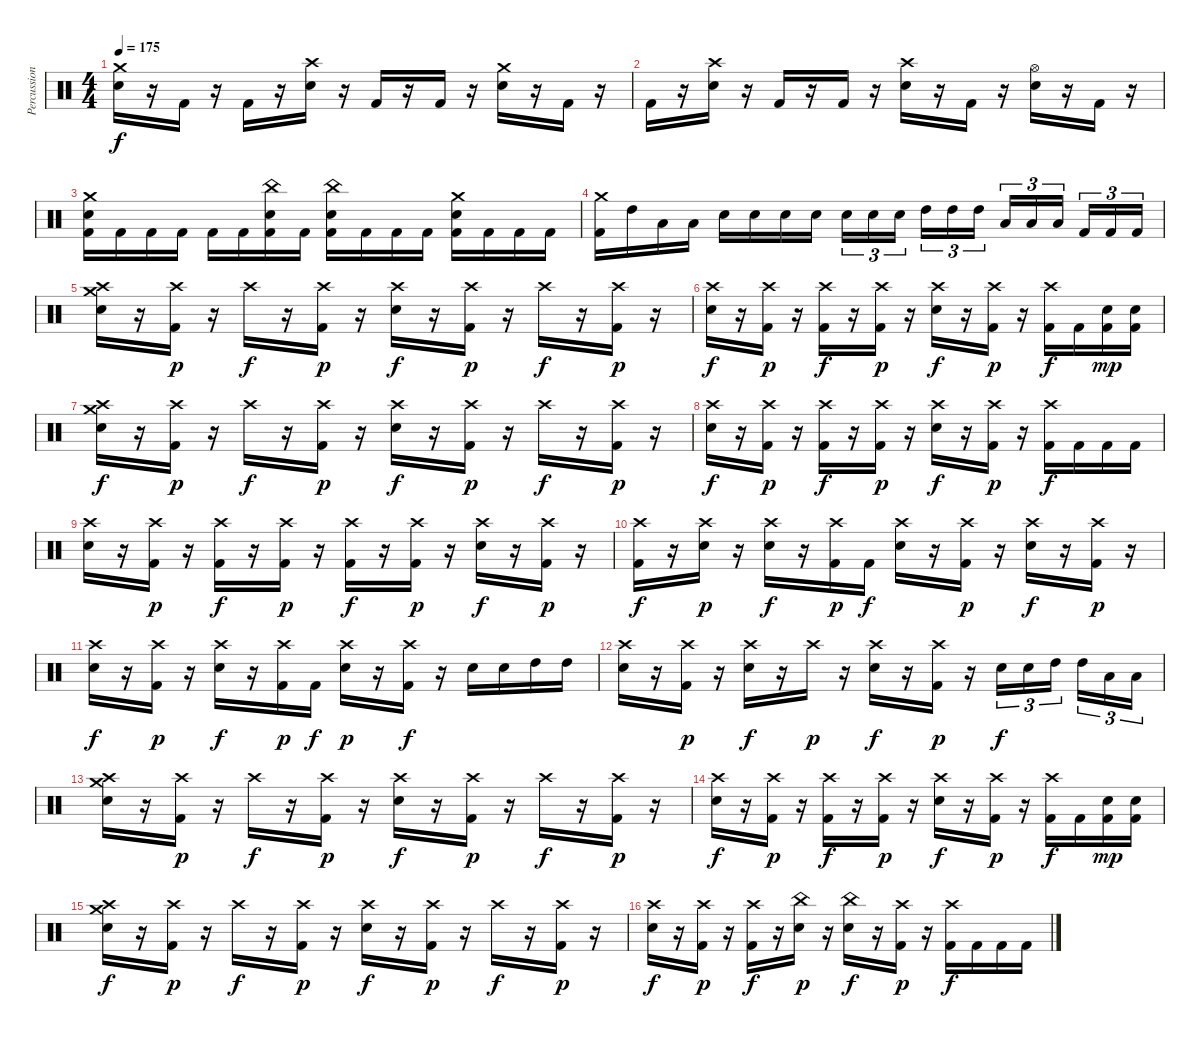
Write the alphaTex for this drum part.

\track ("Percussion" "Percussion") {instrument percussion}
\staff {score}
\articulation defaults
\ts (4 4)
\tempo 175
\clef neutral
\ks c
("Crash medium (hit)" "Electric Snare (hit)").16{dy f} r.16 "Kick (hit) 2".16 r.16 "Kick (hit) 2".16 r.16 ("Crash high (hit)" "Electric Snare (hit)").16 r.16 "Kick (hit) 2".16 r.16 "Kick (hit) 2".16 r.16 ("Crash medium (hit)" "Electric Snare (hit)").16 r.16 "Kick (hit) 2".16 r.16 |
"Kick (hit) 2".16 r.16 ("Crash high (hit)" "Electric Snare (hit)").16 r.16 "Kick (hit) 2".16 r.16 "Kick (hit) 2".16 r.16 ("Crash high (hit)" "Electric Snare (hit)").16 r.16 "Kick (hit) 2".16 r.16 ("Hi-Hat (open)" "Electric Snare (hit)").16 r.16 "Kick (hit) 2".16 r.16 |
("Crash medium (hit)" "Electric Snare (hit)" "Kick (hit) 2").16 "Kick (hit) 2".16 "Kick (hit) 2".16 "Kick (hit) 2".16 "Kick (hit) 2".16 "Kick (hit) 2".16 ("China (hit)" "Electric Snare (hit)" "Kick (hit) 2").16 "Kick (hit) 2".16 ("China (hit)" "Electric Snare (hit)" "Kick (hit) 2").16 "Kick (hit) 2".16 "Kick (hit) 2".16 "Kick (hit) 2".16 ("Crash medium (hit)" "Electric Snare (hit)" "Kick (hit) 2").16 "Kick (hit) 2".16 "Kick (hit) 2".16 "Kick (hit) 2".16 |
("Crash medium (hit)" "Kick (hit) 2").16 "High Tom (hit)".16 "Low Floor Tom (hit)".16 "Low Floor Tom (hit)".16 "Electric Snare (hit)".16 "Electric Snare (hit)".16 "Electric Snare (hit)".16 "Electric Snare (hit)".16 "Electric Snare (hit)".16{tu (3 2)} "Electric Snare (hit)".16{tu (3 2)} "Electric Snare (hit)".16{tu (3 2) beam splitsecondary} "High Tom (hit)".16{tu (3 2)} "High Tom (hit)".16{tu (3 2)} "High Tom (hit)".16{tu (3 2)} "Low Floor Tom (hit)".16{tu (3 2)} "Low Floor Tom (hit)".16{tu (3 2)} "Low Floor Tom (hit)".16{tu (3 2) beam splitsecondary} "Kick (hit) 2".16{tu (3 2)} "Kick (hit) 2".16{tu (3 2)} "Kick (hit) 2".16{tu (3 2)} |
("Crash medium (hit)" "Crash high (hit)" "Electric Snare (hit)").16 r.16 ("Crash high (hit)" "Kick (hit) 2").16{dy p} r.16 "Crash high (hit)".16{dy f} r.16 ("Crash high (hit)" "Kick (hit) 2").16{dy p} r.16 ("Crash high (hit)" "Electric Snare (hit)").16{dy f} r.16 ("Crash high (hit)" "Kick (hit) 2").16{dy p} r.16 "Crash high (hit)".16{dy f} r.16 ("Crash high (hit)" "Kick (hit) 2").16{dy p} r.16 |
("Crash high (hit)" "Electric Snare (hit)").16{dy f} r.16 ("Crash high (hit)" "Kick (hit) 2").16{dy p} r.16 ("Crash high (hit)" "Kick (hit) 2").16{dy f} r.16 ("Crash high (hit)" "Kick (hit) 2").16{dy p} r.16 ("Crash high (hit)" "Electric Snare (hit)").16{dy f} r.16 ("Crash high (hit)" "Kick (hit) 2").16{dy p} r.16 ("Crash high (hit)" "Kick (hit) 2").16{dy f} "Kick (hit) 2".16 ("Electric Snare (hit)" "Kick (hit) 2").16{dy mp} ("Electric Snare (hit)" "Kick (hit) 2").16 |
("Crash medium (hit)" "Crash high (hit)" "Electric Snare (hit)").16{dy f} r.16 ("Crash high (hit)" "Kick (hit) 2").16{dy p} r.16 "Crash high (hit)".16{dy f} r.16 ("Crash high (hit)" "Kick (hit) 2").16{dy p} r.16 ("Crash high (hit)" "Electric Snare (hit)").16{dy f} r.16 ("Crash high (hit)" "Kick (hit) 2").16{dy p} r.16 "Crash high (hit)".16{dy f} r.16 ("Crash high (hit)" "Kick (hit) 2").16{dy p} r.16 |
("Crash high (hit)" "Electric Snare (hit)").16{dy f} r.16 ("Crash high (hit)" "Kick (hit) 2").16{dy p} r.16 ("Crash high (hit)" "Kick (hit) 2").16{dy f} r.16 ("Crash high (hit)" "Kick (hit) 2").16{dy p} r.16 ("Crash high (hit)" "Electric Snare (hit)").16{dy f} r.16 ("Crash high (hit)" "Kick (hit) 2").16{dy p} r.16 ("Crash high (hit)" "Kick (hit) 2").16{dy f} "Kick (hit) 2".16 "Kick (hit) 2".16 "Kick (hit) 2".16 |
("Crash high (hit)" "Electric Snare (hit)").16 r.16 ("Crash high (hit)" "Kick (hit) 2").16{dy p} r.16 ("Crash high (hit)" "Kick (hit) 2").16{dy f} r.16 ("Crash high (hit)" "Kick (hit) 2").16{dy p} r.16 ("Crash high (hit)" "Kick (hit) 2").16{dy f} r.16 ("Crash high (hit)" "Kick (hit) 2").16{dy p} r.16 ("Crash high (hit)" "Electric Snare (hit)").16{dy f} r.16 ("Crash high (hit)" "Kick (hit) 2").16{dy p} r.16 |
("Crash high (hit)" "Kick (hit) 2").16{dy f} r.16 ("Crash high (hit)" "Electric Snare (hit)").16{dy p} r.16 ("Crash high (hit)" "Electric Snare (hit)").16{dy f} r.16 ("Crash high (hit)" "Kick (hit) 2").16{dy p} "Kick (hit) 2".16{dy f} ("Crash high (hit)" "Electric Snare (hit)").16 r.16 ("Crash high (hit)" "Kick (hit) 2").16{dy p} r.16 ("Crash high (hit)" "Electric Snare (hit)").16{dy f} r.16 ("Crash high (hit)" "Kick (hit) 2").16{dy p} r.16 |
("Crash high (hit)" "Electric Snare (hit)").16{dy f} r.16 ("Crash high (hit)" "Kick (hit) 2").16{dy p} r.16 ("Crash high (hit)" "Electric Snare (hit)").16{dy f} r.16 ("Crash high (hit)" "Kick (hit) 2").16{dy p} "Kick (hit) 2".16{dy f} ("Crash high (hit)" "Electric Snare (hit)").16{dy p} r.16 ("Crash high (hit)" "Kick (hit) 2").16{dy f} r.16 "Electric Snare (hit)".16 "Electric Snare (hit)".16 "High Tom (hit)".16 "High Tom (hit)".16 |
("Crash high (hit)" "Electric Snare (hit)").16 r.16 ("Crash high (hit)" "Kick (hit) 2").16{dy p} r.16 ("Crash high (hit)" "Electric Snare (hit)").16{dy f} r.16 "Crash high (hit)".16{dy p} r.16 ("Crash high (hit)" "Electric Snare (hit)").16{dy f} r.16 ("Crash high (hit)" "Kick (hit) 2").16{dy p} r.16 "Electric Snare (hit)".16{tu (3 2) dy f} "Electric Snare (hit)".16{tu (3 2)} "High Tom (hit)".16{tu (3 2) beam splitsecondary} "High Tom (hit)".16{tu (3 2)} "Low Floor Tom (hit)".16{tu (3 2)} "Low Floor Tom (hit)".16{tu (3 2)} |
("Crash medium (hit)" "Crash high (hit)" "Electric Snare (hit)").16 r.16 ("Crash high (hit)" "Kick (hit) 2").16{dy p} r.16 "Crash high (hit)".16{dy f} r.16 ("Crash high (hit)" "Kick (hit) 2").16{dy p} r.16 ("Crash high (hit)" "Electric Snare (hit)").16{dy f} r.16 ("Crash high (hit)" "Kick (hit) 2").16{dy p} r.16 "Crash high (hit)".16{dy f} r.16 ("Crash high (hit)" "Kick (hit) 2").16{dy p} r.16 |
("Crash high (hit)" "Electric Snare (hit)").16{dy f} r.16 ("Crash high (hit)" "Kick (hit) 2").16{dy p} r.16 ("Crash high (hit)" "Kick (hit) 2").16{dy f} r.16 ("Crash high (hit)" "Kick (hit) 2").16{dy p} r.16 ("Crash high (hit)" "Electric Snare (hit)").16{dy f} r.16 ("Crash high (hit)" "Kick (hit) 2").16{dy p} r.16 ("Crash high (hit)" "Kick (hit) 2").16{dy f} "Kick (hit) 2".16 ("Electric Snare (hit)" "Kick (hit) 2").16{dy mp} ("Electric Snare (hit)" "Kick (hit) 2").16 |
("Crash medium (hit)" "Crash high (hit)" "Electric Snare (hit)").16{dy f} r.16 ("Crash high (hit)" "Kick (hit) 2").16{dy p} r.16 "Crash high (hit)".16{dy f} r.16 ("Crash high (hit)" "Kick (hit) 2").16{dy p} r.16 ("Crash high (hit)" "Electric Snare (hit)").16{dy f} r.16 ("Crash high (hit)" "Kick (hit) 2").16{dy p} r.16 "Crash high (hit)".16{dy f} r.16 ("Crash high (hit)" "Kick (hit) 2").16{dy p} r.16 |
("Crash high (hit)" "Electric Snare (hit)").16{dy f} r.16 ("Crash high (hit)" "Kick (hit) 2").16{dy p} r.16 ("Crash high (hit)" "Kick (hit) 2").16{dy f} r.16 ("China (hit)" "Electric Snare (hit)").16{dy p} r.16 ("China (hit)" "Electric Snare (hit)").16{dy f} r.16 ("Crash high (hit)" "Kick (hit) 2").16{dy p} r.16 ("Crash high (hit)" "Kick (hit) 2").16{dy f} "Kick (hit) 2".16 "Kick (hit) 2".16 "Kick (hit) 2".16
